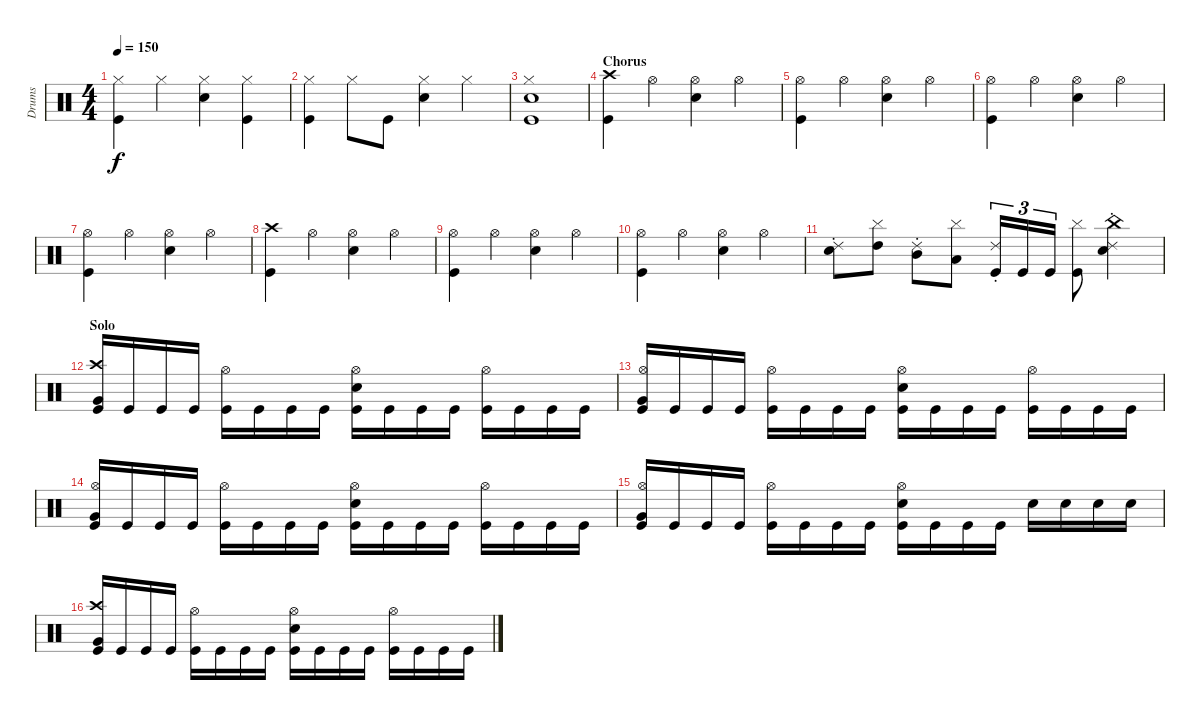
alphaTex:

\track ("Drums" "Drums") {instrument percussion}
\staff {score}
\articulation defaults
\ts (4 4)
\tempo 150
\clef neutral
\ks c
("Hi-Hat (closed)" "Kick (hit)").4{dy f} "Hi-Hat (closed)".4 ("Hi-Hat (closed)" "Electric Snare (hit)").4 ("Hi-Hat (closed)" "Kick (hit)").4 |
("Hi-Hat (closed)" "Kick (hit)").4 "Hi-Hat (closed)".8 "Kick (hit)".8 ("Hi-Hat (closed)" "Electric Snare (hit)").4 "Hi-Hat (closed)".4 |
("Hi-Hat (closed)" "Electric Snare (hit)" "Kick (hit)").1 |
\section ("" "Chorus")
("Crash high (hit)" "Kick (hit)").4 "Hi-Hat (open)".4 ("Hi-Hat (open)" "Electric Snare (hit)").4 "Hi-Hat (open)".4 |
("Hi-Hat (open)" "Kick (hit)").4 "Hi-Hat (open)".4 ("Hi-Hat (open)" "Electric Snare (hit)").4 "Hi-Hat (open)".4 |
("Hi-Hat (open)" "Kick (hit)").4 "Hi-Hat (open)".4 ("Hi-Hat (open)" "Electric Snare (hit)").4 "Hi-Hat (open)".4 |
("Hi-Hat (open)" "Kick (hit)").4 "Hi-Hat (open)".4 ("Hi-Hat (open)" "Electric Snare (hit)").4 "Hi-Hat (open)".4 |
("Crash high (hit)" "Kick (hit)").4 "Hi-Hat (open)".4 ("Hi-Hat (open)" "Electric Snare (hit)").4 "Hi-Hat (open)".4 |
("Hi-Hat (open)" "Kick (hit)").4 "Hi-Hat (open)".4 ("Hi-Hat (open)" "Electric Snare (hit)").4 "Hi-Hat (open)".4 |
("Hi-Hat (open)" "Kick (hit)").4 "Hi-Hat (open)".4 ("Hi-Hat (open)" "Electric Snare (hit)").4 "Hi-Hat (open)".4 |
("Electric Snare (hit)" "Ride (choke) 2").8 ("High Tom (hit)" "Cymbal (hit)").8 ("Mid Tom (hit)" "Ride (choke) 2").8 ("Low Tom (hit)" "Cymbal (hit)").8 ("Ride (choke) 2" "Kick (hit)").16{tu (3 2)} "Kick (hit)".16{tu (3 2)} "Kick (hit)".16{tu (3 2)} ("Cymbal (hit)" "Kick (hit)").8 ("China (hit)" "Electric Snare (hit)" "Ride (choke) 2").4 |
\section ("" "Solo")
("Crash high (hit)" "Very Low Tom (hit)" "Kick (hit)").16 "Kick (hit)".16 "Kick (hit)".16 "Kick (hit)".16 ("Hi-Hat (open)" "Kick (hit)").16 "Kick (hit)".16 "Kick (hit)".16 "Kick (hit)".16 ("Hi-Hat (open)" "Electric Snare (hit)" "Kick (hit)").16 "Kick (hit)".16 "Kick (hit)".16 "Kick (hit)".16 ("Hi-Hat (open)" "Kick (hit)").16 "Kick (hit)".16 "Kick (hit)".16 "Kick (hit)".16 |
("Hi-Hat (open)" "Very Low Tom (hit)" "Kick (hit)").16 "Kick (hit)".16 "Kick (hit)".16 "Kick (hit)".16 ("Hi-Hat (open)" "Kick (hit)").16 "Kick (hit)".16 "Kick (hit)".16 "Kick (hit)".16 ("Hi-Hat (open)" "Electric Snare (hit)" "Kick (hit)").16 "Kick (hit)".16 "Kick (hit)".16 "Kick (hit)".16 ("Hi-Hat (open)" "Kick (hit)").16 "Kick (hit)".16 "Kick (hit)".16 "Kick (hit)".16 |
("Hi-Hat (open)" "Very Low Tom (hit)" "Kick (hit)").16 "Kick (hit)".16 "Kick (hit)".16 "Kick (hit)".16 ("Hi-Hat (open)" "Kick (hit)").16 "Kick (hit)".16 "Kick (hit)".16 "Kick (hit)".16 ("Hi-Hat (open)" "Electric Snare (hit)" "Kick (hit)").16 "Kick (hit)".16 "Kick (hit)".16 "Kick (hit)".16 ("Hi-Hat (open)" "Kick (hit)").16 "Kick (hit)".16 "Kick (hit)".16 "Kick (hit)".16 |
("Hi-Hat (open)" "Very Low Tom (hit)" "Kick (hit)").16 "Kick (hit)".16 "Kick (hit)".16 "Kick (hit)".16 ("Hi-Hat (open)" "Kick (hit)").16 "Kick (hit)".16 "Kick (hit)".16 "Kick (hit)".16 ("Hi-Hat (open)" "Electric Snare (hit)" "Kick (hit)").16 "Kick (hit)".16 "Kick (hit)".16 "Kick (hit)".16 "Electric Snare (hit)".16 "Electric Snare (hit)".16 "Electric Snare (hit)".16 "Electric Snare (hit)".16 |
("Crash high (hit)" "Very Low Tom (hit)" "Kick (hit)").16 "Kick (hit)".16 "Kick (hit)".16 "Kick (hit)".16 ("Hi-Hat (open)" "Kick (hit)").16 "Kick (hit)".16 "Kick (hit)".16 "Kick (hit)".16 ("Hi-Hat (open)" "Electric Snare (hit)" "Kick (hit)").16 "Kick (hit)".16 "Kick (hit)".16 "Kick (hit)".16 ("Hi-Hat (open)" "Kick (hit)").16 "Kick (hit)".16 "Kick (hit)".16 "Kick (hit)".16
